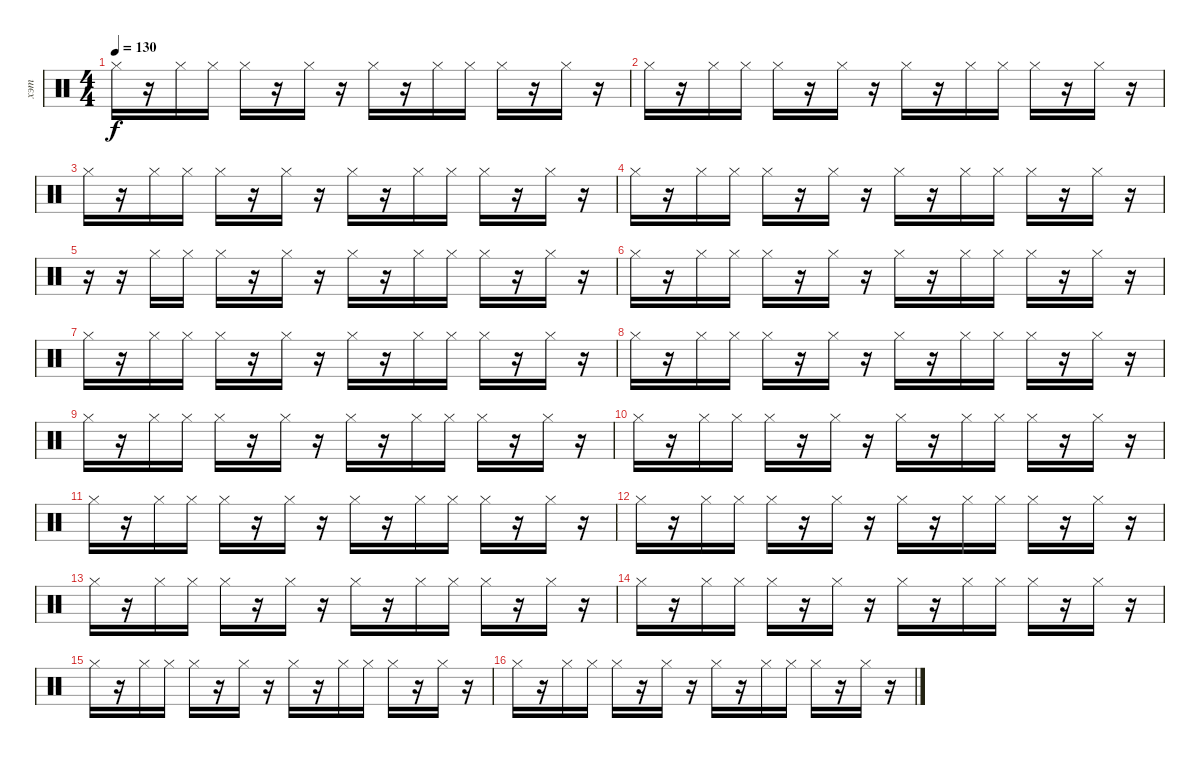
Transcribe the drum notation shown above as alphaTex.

\track ("хэт" "хэт") {instrument percussion}
\staff {score}
\articulation defaults
\ts (4 4)
\tempo 130
\clef neutral
\ks c "Hi-Hat (closed)".16{dy f}
r.16 "Hi-Hat (closed)".16 "Hi-Hat (closed)".16 "Hi-Hat (closed)".16 r.16 "Hi-Hat (closed)".16 r.16 "Hi-Hat (closed)".16 r.16 "Hi-Hat (closed)".16 "Hi-Hat (closed)".16 "Hi-Hat (closed)".16 r.16 "Hi-Hat (closed)".16 r.16 |
"Hi-Hat (closed)".16 r.16 "Hi-Hat (closed)".16 "Hi-Hat (closed)".16 "Hi-Hat (closed)".16 r.16 "Hi-Hat (closed)".16 r.16 "Hi-Hat (closed)".16 r.16 "Hi-Hat (closed)".16 "Hi-Hat (closed)".16 "Hi-Hat (closed)".16 r.16 "Hi-Hat (closed)".16 r.16 |
"Hi-Hat (closed)".16 r.16 "Hi-Hat (closed)".16 "Hi-Hat (closed)".16 "Hi-Hat (closed)".16 r.16 "Hi-Hat (closed)".16 r.16 "Hi-Hat (closed)".16 r.16 "Hi-Hat (closed)".16 "Hi-Hat (closed)".16 "Hi-Hat (closed)".16 r.16 "Hi-Hat (closed)".16 r.16 |
"Hi-Hat (closed)".16 r.16 "Hi-Hat (closed)".16 "Hi-Hat (closed)".16 "Hi-Hat (closed)".16 r.16 "Hi-Hat (closed)".16 r.16 "Hi-Hat (closed)".16 r.16 "Hi-Hat (closed)".16 "Hi-Hat (closed)".16 "Hi-Hat (closed)".16 r.16 "Hi-Hat (closed)".16 r.16 |
r.16 r.16 "Hi-Hat (closed)".16 "Hi-Hat (closed)".16 "Hi-Hat (closed)".16 r.16 "Hi-Hat (closed)".16 r.16 "Hi-Hat (closed)".16 r.16 "Hi-Hat (closed)".16 "Hi-Hat (closed)".16 "Hi-Hat (closed)".16 r.16 "Hi-Hat (closed)".16 r.16 |
"Hi-Hat (closed)".16 r.16 "Hi-Hat (closed)".16 "Hi-Hat (closed)".16 "Hi-Hat (closed)".16 r.16 "Hi-Hat (closed)".16 r.16 "Hi-Hat (closed)".16 r.16 "Hi-Hat (closed)".16 "Hi-Hat (closed)".16 "Hi-Hat (closed)".16 r.16 "Hi-Hat (closed)".16 r.16 |
"Hi-Hat (closed)".16 r.16 "Hi-Hat (closed)".16 "Hi-Hat (closed)".16 "Hi-Hat (closed)".16 r.16 "Hi-Hat (closed)".16 r.16 "Hi-Hat (closed)".16 r.16 "Hi-Hat (closed)".16 "Hi-Hat (closed)".16 "Hi-Hat (closed)".16 r.16 "Hi-Hat (closed)".16 r.16 |
"Hi-Hat (closed)".16 r.16 "Hi-Hat (closed)".16 "Hi-Hat (closed)".16 "Hi-Hat (closed)".16 r.16 "Hi-Hat (closed)".16 r.16 "Hi-Hat (closed)".16 r.16 "Hi-Hat (closed)".16 "Hi-Hat (closed)".16 "Hi-Hat (closed)".16 r.16 "Hi-Hat (closed)".16 r.16 |
"Hi-Hat (closed)".16 r.16 "Hi-Hat (closed)".16 "Hi-Hat (closed)".16 "Hi-Hat (closed)".16 r.16 "Hi-Hat (closed)".16 r.16 "Hi-Hat (closed)".16 r.16 "Hi-Hat (closed)".16 "Hi-Hat (closed)".16 "Hi-Hat (closed)".16 r.16 "Hi-Hat (closed)".16 r.16 |
"Hi-Hat (closed)".16 r.16 "Hi-Hat (closed)".16 "Hi-Hat (closed)".16 "Hi-Hat (closed)".16 r.16 "Hi-Hat (closed)".16 r.16 "Hi-Hat (closed)".16 r.16 "Hi-Hat (closed)".16 "Hi-Hat (closed)".16 "Hi-Hat (closed)".16 r.16 "Hi-Hat (closed)".16 r.16 |
"Hi-Hat (closed)".16 r.16 "Hi-Hat (closed)".16 "Hi-Hat (closed)".16 "Hi-Hat (closed)".16 r.16 "Hi-Hat (closed)".16 r.16 "Hi-Hat (closed)".16 r.16 "Hi-Hat (closed)".16 "Hi-Hat (closed)".16 "Hi-Hat (closed)".16 r.16 "Hi-Hat (closed)".16 r.16 |
"Hi-Hat (closed)".16 r.16 "Hi-Hat (closed)".16 "Hi-Hat (closed)".16 "Hi-Hat (closed)".16 r.16 "Hi-Hat (closed)".16 r.16 "Hi-Hat (closed)".16 r.16 "Hi-Hat (closed)".16 "Hi-Hat (closed)".16 "Hi-Hat (closed)".16 r.16 "Hi-Hat (closed)".16 r.16 |
"Hi-Hat (closed)".16 r.16 "Hi-Hat (closed)".16 "Hi-Hat (closed)".16 "Hi-Hat (closed)".16 r.16 "Hi-Hat (closed)".16 r.16 "Hi-Hat (closed)".16 r.16 "Hi-Hat (closed)".16 "Hi-Hat (closed)".16 "Hi-Hat (closed)".16 r.16 "Hi-Hat (closed)".16 r.16 |
"Hi-Hat (closed)".16 r.16 "Hi-Hat (closed)".16 "Hi-Hat (closed)".16 "Hi-Hat (closed)".16 r.16 "Hi-Hat (closed)".16 r.16 "Hi-Hat (closed)".16 r.16 "Hi-Hat (closed)".16 "Hi-Hat (closed)".16 "Hi-Hat (closed)".16 r.16 "Hi-Hat (closed)".16 r.16 |
"Hi-Hat (closed)".16 r.16 "Hi-Hat (closed)".16 "Hi-Hat (closed)".16 "Hi-Hat (closed)".16 r.16 "Hi-Hat (closed)".16 r.16 "Hi-Hat (closed)".16 r.16 "Hi-Hat (closed)".16 "Hi-Hat (closed)".16 "Hi-Hat (closed)".16 r.16 "Hi-Hat (closed)".16 r.16 |
"Hi-Hat (closed)".16 r.16 "Hi-Hat (closed)".16 "Hi-Hat (closed)".16 "Hi-Hat (closed)".16 r.16 "Hi-Hat (closed)".16 r.16 "Hi-Hat (closed)".16 r.16 "Hi-Hat (closed)".16 "Hi-Hat (closed)".16 "Hi-Hat (closed)".16 r.16 "Hi-Hat (closed)".16 r.16
